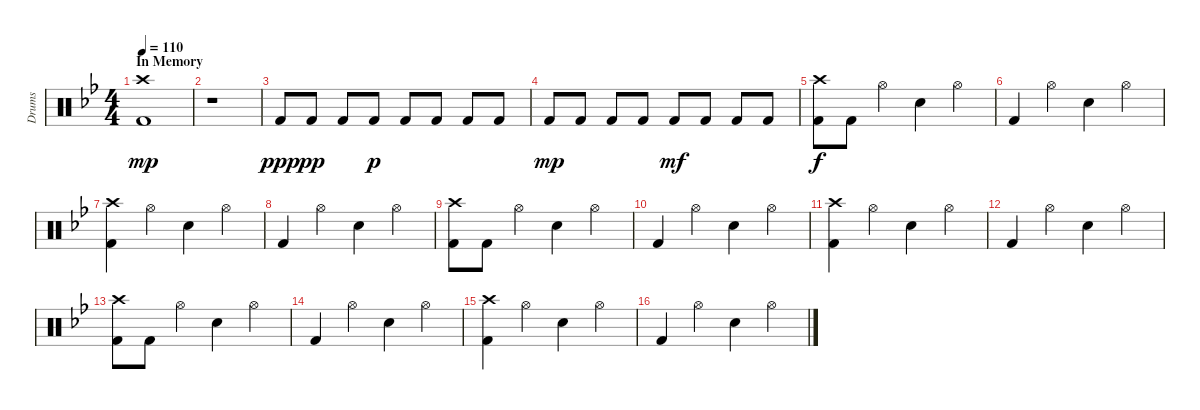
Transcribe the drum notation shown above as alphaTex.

\track ("Drums" "Drums") {instrument percussion}
\staff {score}
\articulation defaults
\ts (4 4)
\section ("" "In Memory")
\tempo 110
\clef neutral
\ks gminor
("Crash high (hit)" "Kick (hit) 2").1{dy mp} |
r.1 |
"Kick (hit) 2".8{dy ppp} "Kick (hit) 2".8{dy pp} "Kick (hit) 2".8 "Kick (hit) 2".8{dy p} "Kick (hit) 2".8 "Kick (hit) 2".8 "Kick (hit) 2".8 "Kick (hit) 2".8 |
"Kick (hit) 2".8{dy mp} "Kick (hit) 2".8 "Kick (hit) 2".8 "Kick (hit) 2".8 "Kick (hit) 2".8{dy mf} "Kick (hit) 2".8 "Kick (hit) 2".8 "Kick (hit) 2".8 |
("Crash high (hit)" "Kick (hit) 2").8{dy f} "Kick (hit) 2".8 "Hi-Hat (open)".4 "Snare (hit) 2".4 "Hi-Hat (open)".4 |
"Kick (hit) 2".4 "Hi-Hat (open)".4 "Snare (hit) 2".4 "Hi-Hat (open)".4 |
("Crash high (hit)" "Kick (hit) 2").4 "Hi-Hat (open)".4 "Snare (hit) 2".4 "Hi-Hat (open)".4 |
"Kick (hit) 2".4 "Hi-Hat (open)".4 "Snare (hit) 2".4 "Hi-Hat (open)".4 |
("Crash high (hit)" "Kick (hit) 2").8 "Kick (hit) 2".8 "Hi-Hat (open)".4 "Snare (hit) 2".4 "Hi-Hat (open)".4 |
"Kick (hit) 2".4 "Hi-Hat (open)".4 "Snare (hit) 2".4 "Hi-Hat (open)".4 |
("Crash high (hit)" "Kick (hit) 2").4 "Hi-Hat (open)".4 "Snare (hit) 2".4 "Hi-Hat (open)".4 |
"Kick (hit) 2".4 "Hi-Hat (open)".4 "Snare (hit) 2".4 "Hi-Hat (open)".4 |
("Crash high (hit)" "Kick (hit) 2").8 "Kick (hit) 2".8 "Hi-Hat (open)".4 "Snare (hit) 2".4 "Hi-Hat (open)".4 |
"Kick (hit) 2".4 "Hi-Hat (open)".4 "Snare (hit) 2".4 "Hi-Hat (open)".4 |
("Crash high (hit)" "Kick (hit) 2").4 "Hi-Hat (open)".4 "Snare (hit) 2".4 "Hi-Hat (open)".4 |
"Kick (hit) 2".4 "Hi-Hat (open)".4 "Snare (hit) 2".4 "Hi-Hat (open)".4
